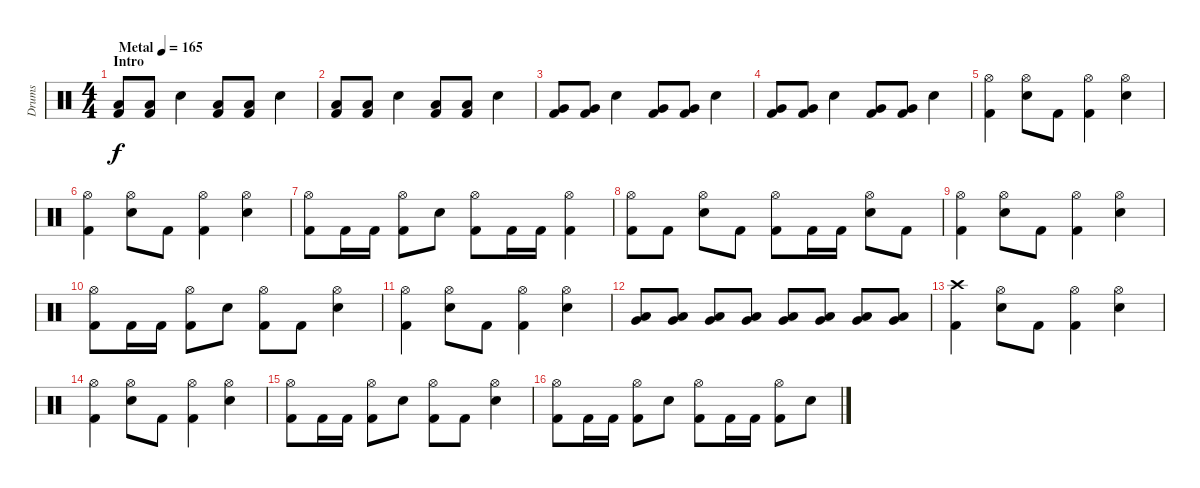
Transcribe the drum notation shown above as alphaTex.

\track ("Drums" "Drums") {instrument percussion}
\staff {score}
\articulation defaults
\ts (4 4)
\section ("" "Intro")
\tempo (165 "Metal")
\clef neutral
\ks c
("Low Tom (hit)" "Kick (hit) 2").8{dy f volume 1} ("Low Tom (hit)" "Kick (hit) 2").8{volume 15} "Snare (hit) 2".4 ("Low Tom (hit)" "Kick (hit) 2").8 ("Low Tom (hit)" "Kick (hit) 2").8 "Snare (hit) 2".4 |
("Low Tom (hit)" "Kick (hit) 2").8 ("Low Tom (hit)" "Kick (hit) 2").8 "Snare (hit) 2".4 ("Low Tom (hit)" "Kick (hit) 2").8 ("Low Tom (hit)" "Kick (hit) 2").8 "Snare (hit) 2".4 |
("Very Low Tom (hit)" "Kick (hit) 2").8 ("Very Low Tom (hit)" "Kick (hit) 2").8 "Snare (hit) 2".4 ("Very Low Tom (hit)" "Kick (hit) 2").8 ("Very Low Tom (hit)" "Kick (hit) 2").8 "Snare (hit) 2".4 |
("Very Low Tom (hit)" "Kick (hit) 2").8 ("Very Low Tom (hit)" "Kick (hit) 2").8 "Snare (hit) 2".4 ("Very Low Tom (hit)" "Kick (hit) 2").8 ("Very Low Tom (hit)" "Kick (hit) 2").8 "Snare (hit) 2".4 |
("Hi-Hat (open)" "Kick (hit) 2").4 ("Hi-Hat (open)" "Snare (hit) 2").8 "Kick (hit) 2".8 ("Hi-Hat (open)" "Kick (hit) 2").4 ("Hi-Hat (open)" "Snare (hit) 2").4 |
("Hi-Hat (open)" "Kick (hit) 2").4 ("Hi-Hat (open)" "Snare (hit) 2").8 "Kick (hit) 2".8 ("Hi-Hat (open)" "Kick (hit) 2").4 ("Hi-Hat (open)" "Snare (hit) 2").4 |
("Hi-Hat (open)" "Kick (hit) 2").8 "Kick (hit) 2".16 "Kick (hit) 2".16 ("Hi-Hat (open)" "Kick (hit) 2").8 "Snare (hit) 2".8 ("Hi-Hat (open)" "Kick (hit) 2").8 "Kick (hit) 2".16 "Kick (hit) 2".16 ("Hi-Hat (open)" "Kick (hit) 2").4 |
("Hi-Hat (open)" "Kick (hit) 2").8 "Kick (hit) 2".8 ("Hi-Hat (open)" "Snare (hit) 2").8 "Kick (hit) 2".8 ("Hi-Hat (open)" "Kick (hit) 2").8 "Kick (hit) 2".16 "Kick (hit) 2".16 ("Hi-Hat (open)" "Snare (hit) 2").8 "Kick (hit) 2".8 |
("Hi-Hat (open)" "Kick (hit) 2").4 ("Hi-Hat (open)" "Snare (hit) 2").8 "Kick (hit) 2".8 ("Hi-Hat (open)" "Kick (hit) 2").4 ("Hi-Hat (open)" "Snare (hit) 2").4 |
("Hi-Hat (open)" "Kick (hit) 2").8 "Kick (hit) 2".16 "Kick (hit) 2".16 ("Hi-Hat (open)" "Kick (hit) 2").8 "Snare (hit) 2".8 ("Hi-Hat (open)" "Kick (hit) 2").8 "Kick (hit) 2".8 ("Hi-Hat (open)" "Snare (hit) 2").4 |
("Hi-Hat (open)" "Kick (hit) 2").4 ("Hi-Hat (open)" "Snare (hit) 2").8 "Kick (hit) 2".8 ("Hi-Hat (open)" "Kick (hit) 2").4 ("Hi-Hat (open)" "Snare (hit) 2").4 |
("Low Tom (hit)" "Very Low Tom (hit)").8 ("Low Tom (hit)" "Very Low Tom (hit)").8 ("Very Low Tom (hit)" "Low Floor Tom (hit)").8 ("Very Low Tom (hit)" "Low Floor Tom (hit)").8 ("Low Tom (hit)" "Very Low Tom (hit)").8 ("Low Tom (hit)" "Very Low Tom (hit)").8 ("Very Low Tom (hit)" "Low Floor Tom (hit)").8 ("Very Low Tom (hit)" "Low Floor Tom (hit)").8 |
("Crash high (hit)" "Kick (hit) 2").4 ("Hi-Hat (open)" "Snare (hit) 2").8 "Kick (hit) 2".8 ("Hi-Hat (open)" "Kick (hit) 2").4 ("Hi-Hat (open)" "Snare (hit) 2").4 |
("Hi-Hat (open)" "Kick (hit) 2").4 ("Hi-Hat (open)" "Snare (hit) 2").8 "Kick (hit) 2".8 ("Hi-Hat (open)" "Kick (hit) 2").4 ("Hi-Hat (open)" "Snare (hit) 2").4 |
("Hi-Hat (open)" "Kick (hit) 2").8 "Kick (hit) 2".16 "Kick (hit) 2".16 ("Hi-Hat (open)" "Kick (hit) 2").8 "Snare (hit) 2".8 ("Hi-Hat (open)" "Kick (hit) 2").8 "Kick (hit) 2".8 ("Hi-Hat (open)" "Snare (hit) 2").4 |
("Hi-Hat (open)" "Kick (hit) 2").8 "Kick (hit) 2".16 "Kick (hit) 2".16 ("Hi-Hat (open)" "Kick (hit) 2").8 "Snare (hit) 2".8 ("Hi-Hat (open)" "Kick (hit) 2").8 "Kick (hit) 2".16 "Kick (hit) 2".16 ("Hi-Hat (open)" "Kick (hit) 2").8 "Snare (hit) 2".8
